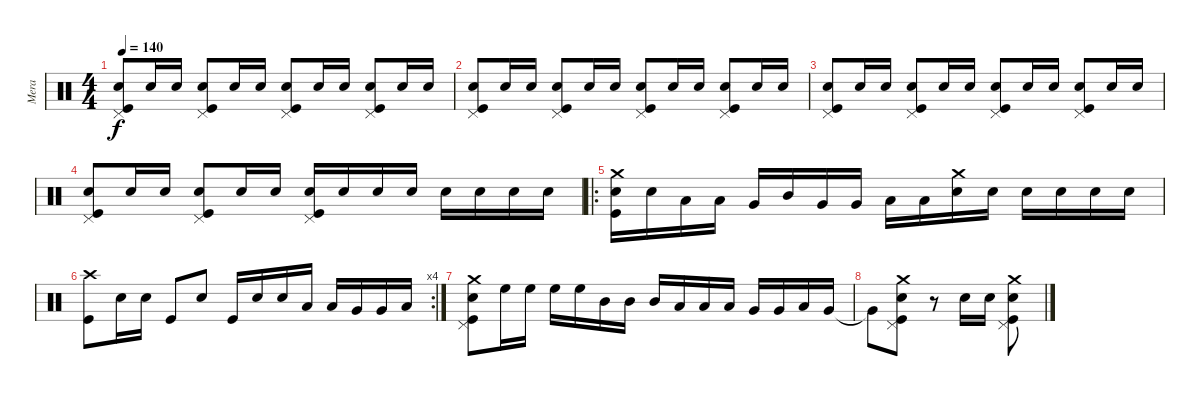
\track ("Mera" "Mera") {instrument percussion}
\staff {score}
\articulation defaults
\ts (4 4)
\tempo 140
\clef neutral
\ks c
("Pedal Hi-Hat (hit)" "Electric Snare (hit)" "Kick (hit)").8{dy f} "Electric Snare (hit)".16 "Electric Snare (hit)".16 ("Pedal Hi-Hat (hit)" "Electric Snare (hit)" "Kick (hit)").8 "Electric Snare (hit)".16 "Electric Snare (hit)".16 ("Pedal Hi-Hat (hit)" "Electric Snare (hit)" "Kick (hit)").8 "Electric Snare (hit)".16 "Electric Snare (hit)".16 ("Pedal Hi-Hat (hit)" "Electric Snare (hit)" "Kick (hit)").8 "Electric Snare (hit)".16 "Electric Snare (hit)".16 |
("Pedal Hi-Hat (hit)" "Electric Snare (hit)" "Kick (hit)").8 "Electric Snare (hit)".16 "Electric Snare (hit)".16 ("Pedal Hi-Hat (hit)" "Electric Snare (hit)" "Kick (hit)").8 "Electric Snare (hit)".16 "Electric Snare (hit)".16 ("Pedal Hi-Hat (hit)" "Electric Snare (hit)" "Kick (hit)").8 "Electric Snare (hit)".16 "Electric Snare (hit)".16 ("Pedal Hi-Hat (hit)" "Electric Snare (hit)" "Kick (hit)").8 "Electric Snare (hit)".16 "Electric Snare (hit)".16 |
("Pedal Hi-Hat (hit)" "Electric Snare (hit)" "Kick (hit)").8 "Electric Snare (hit)".16 "Electric Snare (hit)".16 ("Pedal Hi-Hat (hit)" "Electric Snare (hit)" "Kick (hit)").8 "Electric Snare (hit)".16 "Electric Snare (hit)".16 ("Pedal Hi-Hat (hit)" "Electric Snare (hit)" "Kick (hit)").8 "Electric Snare (hit)".16 "Electric Snare (hit)".16 ("Pedal Hi-Hat (hit)" "Electric Snare (hit)" "Kick (hit)").8 "Electric Snare (hit)".16 "Electric Snare (hit)".16 |
("Pedal Hi-Hat (hit)" "Electric Snare (hit)" "Kick (hit)").8 "Electric Snare (hit)".16 "Electric Snare (hit)".16 ("Pedal Hi-Hat (hit)" "Electric Snare (hit)" "Kick (hit)").8 "Electric Snare (hit)".16 "Electric Snare (hit)".16 ("Pedal Hi-Hat (hit)" "Electric Snare (hit)" "Kick (hit)").16 "Electric Snare (hit)".16 "Electric Snare (hit)".16 "Electric Snare (hit)".16 "Electric Snare (hit)".16 "Electric Snare (hit)".16 "Electric Snare (hit)".16 "Electric Snare (hit)".16 |
\ro
("Kick (hit)" "Crash medium (hit)" "Electric Snare (hit)").16 "Electric Snare (hit)".16 "Low Tom (hit)".16 "Low Tom (hit)".16 "Very Low Tom (hit)".16 "Mid Tom (hit)".16 "Very Low Tom (hit)".16 "Very Low Tom (hit)".16 "Low Tom (hit)".16 "Low Tom (hit)".16 ("Electric Snare (hit)" "Crash medium (hit)").16 "Electric Snare (hit)".16 "Electric Snare (hit)".16 "Electric Snare (hit)".16 "Electric Snare (hit)".16 "Electric Snare (hit)".16 |
\rc 4
("Kick (hit)" "Crash high (hit)").8 "Electric Snare (hit)".16 "Electric Snare (hit)".16 "Kick (hit)".8 "Electric Snare (hit)".8 "Kick (hit)".16 "Electric Snare (hit)".16 "Electric Snare (hit)".16 "Low Tom (hit)".16 "Low Tom (hit)".16 "Very Low Tom (hit)".16 "Very Low Tom (hit)".16 "Low Floor Tom (hit)".16 |
("Kick (hit)" "Electric Snare (hit)" "Crash medium (hit)" "Pedal Hi-Hat (hit)").8 "High Floor Tom (hit)".16 "High Floor Tom (hit)".16 "High Floor Tom (hit)".16 "High Floor Tom (hit)".16 "Mid Tom (hit)".16 "Mid Tom (hit)".16 "Mid Tom (hit)".16 "Low Tom (hit)".16 "Low Tom (hit)".16 "Low Tom (hit)".16 "Very Low Tom (hit)".16 "Very Low Tom (hit)".16 "Low Floor Tom (hit)".16 "Very Low Tom (hit)".16 |
"Very Low Tom (hit)"{t}.8 ("Kick (hit)" "Crash medium (hit)" "Electric Snare (hit)" "Pedal Hi-Hat (hit)").8 r.8 "Electric Snare (hit)".16 "Electric Snare (hit)".16 ("Kick (hit)" "Crash medium (hit)" "Electric Snare (hit)" "Pedal Hi-Hat (hit)").8
